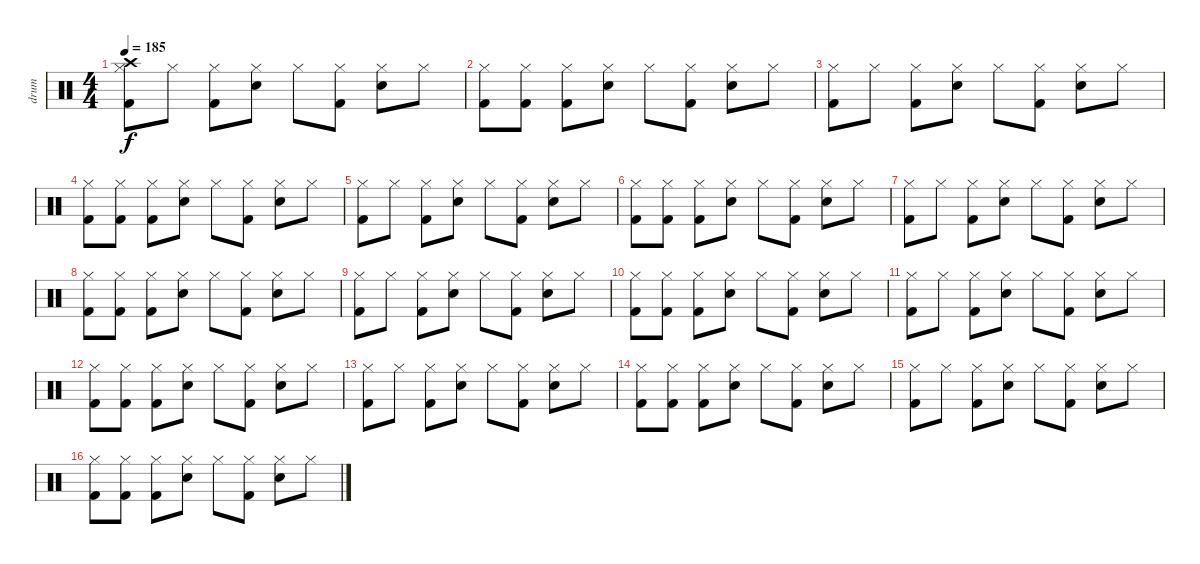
\track ("drum" "drum") {instrument percussion}
\staff {score}
\articulation defaults
\ts (4 4)
\tempo 185
\clef neutral
\ks c
("Hi-Hat (closed)" "Crash high (hit)" "Kick (hit) 2").8{dy f} "Hi-Hat (closed)".8 ("Hi-Hat (closed)" "Kick (hit) 2").8 ("Hi-Hat (closed)" "Electric Snare (hit)").8 "Hi-Hat (closed)".8 ("Hi-Hat (closed)" "Kick (hit) 2").8 ("Hi-Hat (closed)" "Electric Snare (hit)").8 "Hi-Hat (closed)".8 |
("Hi-Hat (closed)" "Kick (hit) 2").8 ("Hi-Hat (closed)" "Kick (hit) 2").8 ("Hi-Hat (closed)" "Kick (hit) 2").8 ("Hi-Hat (closed)" "Electric Snare (hit)").8 "Hi-Hat (closed)".8 ("Hi-Hat (closed)" "Kick (hit) 2").8 ("Hi-Hat (closed)" "Electric Snare (hit)").8 "Hi-Hat (closed)".8 |
("Hi-Hat (closed)" "Kick (hit) 2").8 "Hi-Hat (closed)".8 ("Hi-Hat (closed)" "Kick (hit) 2").8 ("Hi-Hat (closed)" "Electric Snare (hit)").8 "Hi-Hat (closed)".8 ("Hi-Hat (closed)" "Kick (hit) 2").8 ("Hi-Hat (closed)" "Electric Snare (hit)").8 "Hi-Hat (closed)".8 |
("Hi-Hat (closed)" "Kick (hit) 2").8 ("Hi-Hat (closed)" "Kick (hit) 2").8 ("Hi-Hat (closed)" "Kick (hit) 2").8 ("Hi-Hat (closed)" "Electric Snare (hit)").8 "Hi-Hat (closed)".8 ("Hi-Hat (closed)" "Kick (hit) 2").8 ("Hi-Hat (closed)" "Electric Snare (hit)").8 "Hi-Hat (closed)".8 |
("Hi-Hat (closed)" "Kick (hit) 2").8 "Hi-Hat (closed)".8 ("Hi-Hat (closed)" "Kick (hit) 2").8 ("Hi-Hat (closed)" "Electric Snare (hit)").8 "Hi-Hat (closed)".8 ("Hi-Hat (closed)" "Kick (hit) 2").8 ("Hi-Hat (closed)" "Electric Snare (hit)").8 "Hi-Hat (closed)".8 |
("Hi-Hat (closed)" "Kick (hit) 2").8 ("Hi-Hat (closed)" "Kick (hit) 2").8 ("Hi-Hat (closed)" "Kick (hit) 2").8 ("Hi-Hat (closed)" "Electric Snare (hit)").8 "Hi-Hat (closed)".8 ("Hi-Hat (closed)" "Kick (hit) 2").8 ("Hi-Hat (closed)" "Electric Snare (hit)").8 "Hi-Hat (closed)".8 |
("Hi-Hat (closed)" "Kick (hit) 2").8 "Hi-Hat (closed)".8 ("Hi-Hat (closed)" "Kick (hit) 2").8 ("Hi-Hat (closed)" "Electric Snare (hit)").8 "Hi-Hat (closed)".8 ("Hi-Hat (closed)" "Kick (hit) 2").8 ("Hi-Hat (closed)" "Electric Snare (hit)").8 "Hi-Hat (closed)".8 |
("Hi-Hat (closed)" "Kick (hit) 2").8 ("Hi-Hat (closed)" "Kick (hit) 2").8 ("Hi-Hat (closed)" "Kick (hit) 2").8 ("Hi-Hat (closed)" "Electric Snare (hit)").8 "Hi-Hat (closed)".8 ("Hi-Hat (closed)" "Kick (hit) 2").8 ("Hi-Hat (closed)" "Electric Snare (hit)").8 "Hi-Hat (closed)".8 |
("Hi-Hat (closed)" "Kick (hit) 2").8 "Hi-Hat (closed)".8 ("Hi-Hat (closed)" "Kick (hit) 2").8 ("Hi-Hat (closed)" "Electric Snare (hit)").8 "Hi-Hat (closed)".8 ("Hi-Hat (closed)" "Kick (hit) 2").8 ("Hi-Hat (closed)" "Electric Snare (hit)").8 "Hi-Hat (closed)".8 |
("Hi-Hat (closed)" "Kick (hit) 2").8 ("Hi-Hat (closed)" "Kick (hit) 2").8 ("Hi-Hat (closed)" "Kick (hit) 2").8 ("Hi-Hat (closed)" "Electric Snare (hit)").8 "Hi-Hat (closed)".8 ("Hi-Hat (closed)" "Kick (hit) 2").8 ("Hi-Hat (closed)" "Electric Snare (hit)").8 "Hi-Hat (closed)".8 |
("Hi-Hat (closed)" "Kick (hit) 2").8 "Hi-Hat (closed)".8 ("Hi-Hat (closed)" "Kick (hit) 2").8 ("Hi-Hat (closed)" "Electric Snare (hit)").8 "Hi-Hat (closed)".8 ("Hi-Hat (closed)" "Kick (hit) 2").8 ("Hi-Hat (closed)" "Electric Snare (hit)").8 "Hi-Hat (closed)".8 |
("Hi-Hat (closed)" "Kick (hit) 2").8 ("Hi-Hat (closed)" "Kick (hit) 2").8 ("Hi-Hat (closed)" "Kick (hit) 2").8 ("Hi-Hat (closed)" "Electric Snare (hit)").8 "Hi-Hat (closed)".8 ("Hi-Hat (closed)" "Kick (hit) 2").8 ("Hi-Hat (closed)" "Electric Snare (hit)").8 "Hi-Hat (closed)".8 |
("Hi-Hat (closed)" "Kick (hit) 2").8 "Hi-Hat (closed)".8 ("Hi-Hat (closed)" "Kick (hit) 2").8 ("Hi-Hat (closed)" "Electric Snare (hit)").8 "Hi-Hat (closed)".8 ("Hi-Hat (closed)" "Kick (hit) 2").8 ("Hi-Hat (closed)" "Electric Snare (hit)").8 "Hi-Hat (closed)".8 |
("Hi-Hat (closed)" "Kick (hit) 2").8 ("Hi-Hat (closed)" "Kick (hit) 2").8 ("Hi-Hat (closed)" "Kick (hit) 2").8 ("Hi-Hat (closed)" "Electric Snare (hit)").8 "Hi-Hat (closed)".8 ("Hi-Hat (closed)" "Kick (hit) 2").8 ("Hi-Hat (closed)" "Electric Snare (hit)").8 "Hi-Hat (closed)".8 |
("Hi-Hat (closed)" "Kick (hit) 2").8 "Hi-Hat (closed)".8 ("Hi-Hat (closed)" "Kick (hit) 2").8 ("Hi-Hat (closed)" "Electric Snare (hit)").8 "Hi-Hat (closed)".8 ("Hi-Hat (closed)" "Kick (hit) 2").8 ("Hi-Hat (closed)" "Electric Snare (hit)").8 "Hi-Hat (closed)".8 |
("Hi-Hat (closed)" "Kick (hit) 2").8 ("Hi-Hat (closed)" "Kick (hit) 2").8 ("Hi-Hat (closed)" "Kick (hit) 2").8 ("Hi-Hat (closed)" "Electric Snare (hit)").8 "Hi-Hat (closed)".8 ("Hi-Hat (closed)" "Kick (hit) 2").8 ("Hi-Hat (closed)" "Electric Snare (hit)").8 "Hi-Hat (closed)".8
